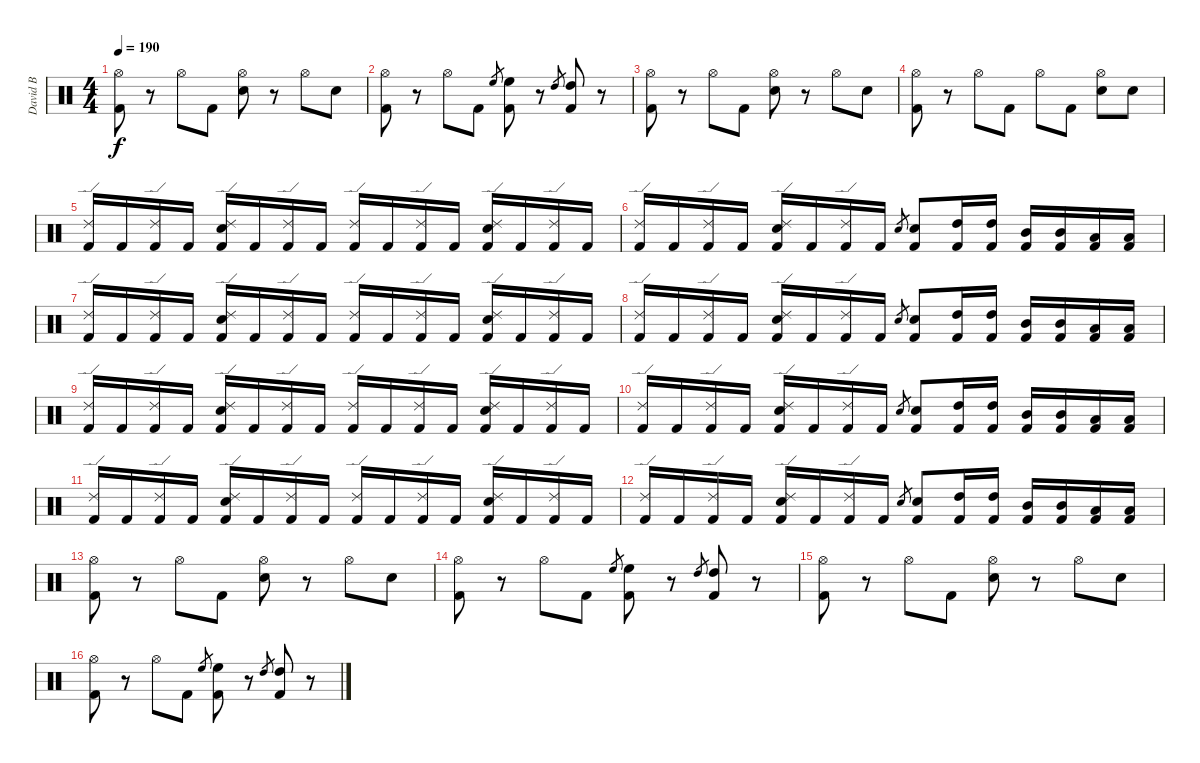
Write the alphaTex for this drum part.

\track ("David B" "David B") {instrument percussion}
\staff {score}
\articulation defaults
\ts (4 4)
\tempo 190
\clef neutral
\ks c
("Hi-Hat (open)" "Kick (hit) 2").8{dy f} r.8 "Hi-Hat (open)".8 "Kick (hit) 2".8 ("Hi-Hat (open)" "Electric Snare (hit)").8 r.8 "Hi-Hat (open)".8 "Electric Snare (hit)".8 |
("Hi-Hat (open)" "Kick (hit) 2").8 r.8 "Hi-Hat (open)".8 "Kick (hit) 2".8 "High Floor Tom (hit)".8{gr} ("High Floor Tom (hit)" "Kick (hit) 2").8 r.8 "High Tom (hit)".8{gr} ("High Tom (hit)" "Kick (hit) 2").8 r.8 |
("Hi-Hat (open)" "Kick (hit) 2").8 r.8 "Hi-Hat (open)".8 "Kick (hit) 2".8 ("Hi-Hat (open)" "Electric Snare (hit)").8 r.8 "Hi-Hat (open)".8 "Electric Snare (hit)".8 |
("Hi-Hat (open)" "Kick (hit) 2").8 r.8 "Hi-Hat (open)".8 "Kick (hit) 2".8 "Hi-Hat (open)".8 "Kick (hit) 2".8 ("Hi-Hat (open)" "Electric Snare (hit)").8 "Electric Snare (hit)".8 |
("Ride (edge) 2" "Kick (hit) 2").16 "Kick (hit) 2".16 ("Ride (edge) 2" "Kick (hit) 2").16 "Kick (hit) 2".16 ("Ride (edge) 2" "Electric Snare (hit)" "Kick (hit) 2").16 "Kick (hit) 2".16 ("Ride (edge) 2" "Kick (hit) 2").16 "Kick (hit) 2".16 ("Ride (edge) 2" "Kick (hit) 2").16 "Kick (hit) 2".16 ("Ride (edge) 2" "Kick (hit) 2").16 "Kick (hit) 2".16 ("Ride (edge) 2" "Electric Snare (hit)" "Kick (hit) 2").16 "Kick (hit) 2".16 ("Ride (edge) 2" "Kick (hit) 2").16 "Kick (hit) 2".16 |
("Ride (edge) 2" "Kick (hit) 2").16 "Kick (hit) 2".16 ("Ride (edge) 2" "Kick (hit) 2").16 "Kick (hit) 2".16 ("Ride (edge) 2" "Electric Snare (hit)" "Kick (hit) 2").16 "Kick (hit) 2".16 ("Ride (edge) 2" "Kick (hit) 2").16 "Kick (hit) 2".16 "Electric Snare (hit)".8{gr} ("Electric Snare (hit)" "Kick (hit) 2").8 ("High Tom (hit)" "Kick (hit) 2").16 ("High Tom (hit)" "Kick (hit) 2").16 ("Mid Tom (hit)" "Kick (hit) 2").16 ("Mid Tom (hit)" "Kick (hit) 2").16 ("Low Tom (hit)" "Kick (hit) 2").16 ("Low Tom (hit)" "Kick (hit) 2").16 |
("Ride (edge) 2" "Kick (hit) 2").16 "Kick (hit) 2".16 ("Ride (edge) 2" "Kick (hit) 2").16 "Kick (hit) 2".16 ("Ride (edge) 2" "Electric Snare (hit)" "Kick (hit) 2").16 "Kick (hit) 2".16 ("Ride (edge) 2" "Kick (hit) 2").16 "Kick (hit) 2".16 ("Ride (edge) 2" "Kick (hit) 2").16 "Kick (hit) 2".16 ("Ride (edge) 2" "Kick (hit) 2").16 "Kick (hit) 2".16 ("Ride (edge) 2" "Electric Snare (hit)" "Kick (hit) 2").16 "Kick (hit) 2".16 ("Ride (edge) 2" "Kick (hit) 2").16 "Kick (hit) 2".16 |
("Ride (edge) 2" "Kick (hit) 2").16 "Kick (hit) 2".16 ("Ride (edge) 2" "Kick (hit) 2").16 "Kick (hit) 2".16 ("Ride (edge) 2" "Electric Snare (hit)" "Kick (hit) 2").16 "Kick (hit) 2".16 ("Ride (edge) 2" "Kick (hit) 2").16 "Kick (hit) 2".16 "Electric Snare (hit)".8{gr} ("Electric Snare (hit)" "Kick (hit) 2").8 ("High Tom (hit)" "Kick (hit) 2").16 ("High Tom (hit)" "Kick (hit) 2").16 ("Mid Tom (hit)" "Kick (hit) 2").16 ("Mid Tom (hit)" "Kick (hit) 2").16 ("Low Tom (hit)" "Kick (hit) 2").16 ("Low Tom (hit)" "Kick (hit) 2").16 |
("Ride (edge) 2" "Kick (hit) 2").16 "Kick (hit) 2".16 ("Ride (edge) 2" "Kick (hit) 2").16 "Kick (hit) 2".16 ("Ride (edge) 2" "Electric Snare (hit)" "Kick (hit) 2").16 "Kick (hit) 2".16 ("Ride (edge) 2" "Kick (hit) 2").16 "Kick (hit) 2".16 ("Ride (edge) 2" "Kick (hit) 2").16 "Kick (hit) 2".16 ("Ride (edge) 2" "Kick (hit) 2").16 "Kick (hit) 2".16 ("Ride (edge) 2" "Electric Snare (hit)" "Kick (hit) 2").16 "Kick (hit) 2".16 ("Ride (edge) 2" "Kick (hit) 2").16 "Kick (hit) 2".16 |
("Ride (edge) 2" "Kick (hit) 2").16 "Kick (hit) 2".16 ("Ride (edge) 2" "Kick (hit) 2").16 "Kick (hit) 2".16 ("Ride (edge) 2" "Electric Snare (hit)" "Kick (hit) 2").16 "Kick (hit) 2".16 ("Ride (edge) 2" "Kick (hit) 2").16 "Kick (hit) 2".16 "Electric Snare (hit)".8{gr} ("Electric Snare (hit)" "Kick (hit) 2").8 ("High Tom (hit)" "Kick (hit) 2").16 ("High Tom (hit)" "Kick (hit) 2").16 ("Mid Tom (hit)" "Kick (hit) 2").16 ("Mid Tom (hit)" "Kick (hit) 2").16 ("Low Tom (hit)" "Kick (hit) 2").16 ("Low Tom (hit)" "Kick (hit) 2").16 |
("Ride (edge) 2" "Kick (hit) 2").16 "Kick (hit) 2".16 ("Ride (edge) 2" "Kick (hit) 2").16 "Kick (hit) 2".16 ("Ride (edge) 2" "Electric Snare (hit)" "Kick (hit) 2").16 "Kick (hit) 2".16 ("Ride (edge) 2" "Kick (hit) 2").16 "Kick (hit) 2".16 ("Ride (edge) 2" "Kick (hit) 2").16 "Kick (hit) 2".16 ("Ride (edge) 2" "Kick (hit) 2").16 "Kick (hit) 2".16 ("Ride (edge) 2" "Electric Snare (hit)" "Kick (hit) 2").16 "Kick (hit) 2".16 ("Ride (edge) 2" "Kick (hit) 2").16 "Kick (hit) 2".16 |
("Ride (edge) 2" "Kick (hit) 2").16 "Kick (hit) 2".16 ("Ride (edge) 2" "Kick (hit) 2").16 "Kick (hit) 2".16 ("Ride (edge) 2" "Electric Snare (hit)" "Kick (hit) 2").16 "Kick (hit) 2".16 ("Ride (edge) 2" "Kick (hit) 2").16 "Kick (hit) 2".16 "Electric Snare (hit)".8{gr} ("Electric Snare (hit)" "Kick (hit) 2").8 ("High Tom (hit)" "Kick (hit) 2").16 ("High Tom (hit)" "Kick (hit) 2").16 ("Mid Tom (hit)" "Kick (hit) 2").16 ("Mid Tom (hit)" "Kick (hit) 2").16 ("Low Tom (hit)" "Kick (hit) 2").16 ("Low Tom (hit)" "Kick (hit) 2").16 |
("Hi-Hat (open)" "Kick (hit) 2").8 r.8 "Hi-Hat (open)".8 "Kick (hit) 2".8 ("Hi-Hat (open)" "Electric Snare (hit)").8 r.8 "Hi-Hat (open)".8 "Electric Snare (hit)".8 |
("Hi-Hat (open)" "Kick (hit) 2").8 r.8 "Hi-Hat (open)".8 "Kick (hit) 2".8 "High Floor Tom (hit)".8{gr} ("High Floor Tom (hit)" "Kick (hit) 2").8 r.8 "High Tom (hit)".8{gr} ("High Tom (hit)" "Kick (hit) 2").8 r.8 |
("Hi-Hat (open)" "Kick (hit) 2").8 r.8 "Hi-Hat (open)".8 "Kick (hit) 2".8 ("Hi-Hat (open)" "Electric Snare (hit)").8 r.8 "Hi-Hat (open)".8 "Electric Snare (hit)".8 |
("Hi-Hat (open)" "Kick (hit) 2").8 r.8 "Hi-Hat (open)".8 "Kick (hit) 2".8 "High Floor Tom (hit)".8{gr} ("High Floor Tom (hit)" "Kick (hit) 2").8 r.8 "High Tom (hit)".8{gr} ("High Tom (hit)" "Kick (hit) 2").8 r.8
